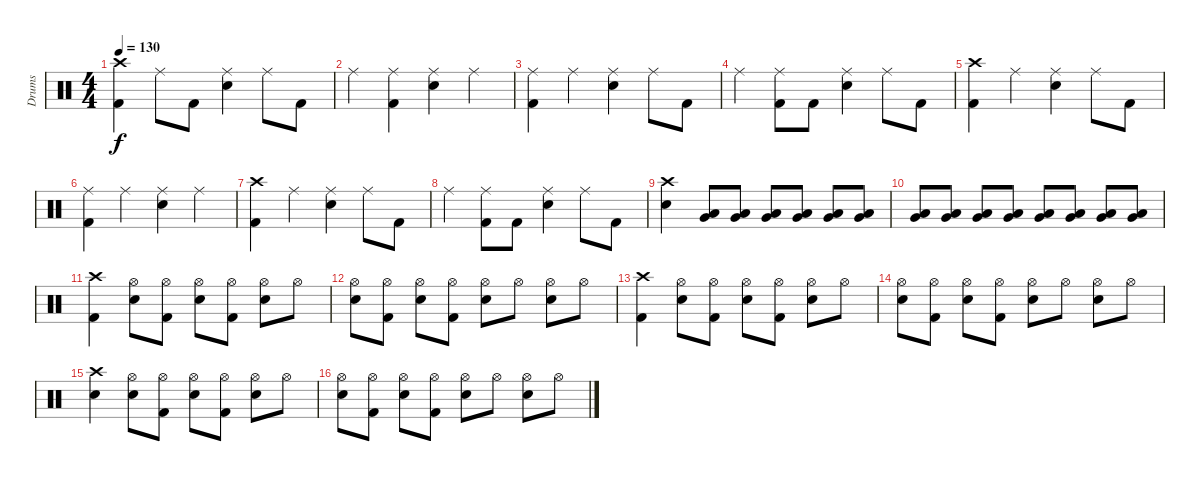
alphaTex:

\track ("Drums" "Drums") {instrument percussion}
\staff {score}
\articulation defaults
\ts (4 4)
\tempo 130
\clef neutral
\ks c
("Crash high (hit)" "Kick (hit) 2").4{dy f} "Ride (middle)".8 "Kick (hit) 2".8 ("Ride (middle)" "Electric Snare (hit)").4 "Ride (middle)".8 "Kick (hit) 2".8 |
"Ride (middle)".4 ("Ride (middle)" "Kick (hit) 2").4 ("Ride (middle)" "Electric Snare (hit)").4 "Ride (middle)".4 |
("Ride (middle)" "Kick (hit) 2").4 "Ride (middle)".4 ("Ride (middle)" "Electric Snare (hit)").4 "Ride (middle)".8 "Kick (hit) 2".8 |
"Ride (middle)".4 ("Ride (middle)" "Kick (hit) 2").8 "Kick (hit) 2".8 ("Ride (middle)" "Electric Snare (hit)").4 "Ride (middle)".8 "Kick (hit) 2".8 |
("Crash high (hit)" "Kick (hit) 2").4 "Ride (middle)".4 ("Ride (middle)" "Electric Snare (hit)").4 "Ride (middle)".8 "Kick (hit) 2".8 |
("Ride (middle)" "Kick (hit) 2").4 "Ride (middle)".4 ("Ride (middle)" "Electric Snare (hit)").4 "Ride (middle)".4 |
("Crash high (hit)" "Kick (hit) 2").4 "Ride (middle)".4 ("Ride (middle)" "Electric Snare (hit)").4 "Ride (middle)".8 "Kick (hit) 2".8 |
"Ride (middle)".4 ("Ride (middle)" "Kick (hit) 2").8 "Kick (hit) 2".8 ("Ride (middle)" "Electric Snare (hit)").4 "Ride (middle)".8 "Kick (hit) 2".8 |
("Crash high (hit)" "Electric Snare (hit)").4 ("Low Tom (hit)" "Very Low Tom (hit)").8 ("Low Tom (hit)" "Very Low Tom (hit)").8 ("Low Tom (hit)" "Very Low Tom (hit)").8 ("Low Tom (hit)" "Very Low Tom (hit)").8 ("Low Tom (hit)" "Very Low Tom (hit)").8 ("Low Tom (hit)" "Very Low Tom (hit)").8 |
("Low Tom (hit)" "Very Low Tom (hit)").8 ("Low Tom (hit)" "Very Low Tom (hit)").8 ("Low Tom (hit)" "Very Low Tom (hit)").8 ("Low Tom (hit)" "Very Low Tom (hit)").8 ("Low Tom (hit)" "Very Low Tom (hit)").8 ("Low Tom (hit)" "Very Low Tom (hit)").8 ("Low Tom (hit)" "Very Low Tom (hit)").8 ("Low Tom (hit)" "Very Low Tom (hit)").8 |
("Crash high (hit)" "Kick (hit) 2").4 ("Hi-Hat (open)" "Electric Snare (hit)").8 ("Hi-Hat (open)" "Kick (hit) 2").8 ("Hi-Hat (open)" "Electric Snare (hit)").8 ("Hi-Hat (open)" "Kick (hit) 2").8 ("Hi-Hat (open)" "Electric Snare (hit)").8 "Hi-Hat (open)".8 |
("Hi-Hat (open)" "Electric Snare (hit)").8 ("Hi-Hat (open)" "Kick (hit) 2").8 ("Hi-Hat (open)" "Electric Snare (hit)").8 ("Hi-Hat (open)" "Kick (hit) 2").8 ("Hi-Hat (open)" "Electric Snare (hit)").8 "Hi-Hat (open)".8 ("Hi-Hat (open)" "Electric Snare (hit)").8 "Hi-Hat (open)".8 |
("Crash high (hit)" "Kick (hit) 2").4 ("Hi-Hat (open)" "Electric Snare (hit)").8 ("Hi-Hat (open)" "Kick (hit) 2").8 ("Hi-Hat (open)" "Electric Snare (hit)").8 ("Hi-Hat (open)" "Kick (hit) 2").8 ("Hi-Hat (open)" "Electric Snare (hit)").8 "Hi-Hat (open)".8 |
("Hi-Hat (open)" "Electric Snare (hit)").8 ("Hi-Hat (open)" "Kick (hit) 2").8 ("Hi-Hat (open)" "Electric Snare (hit)").8 ("Hi-Hat (open)" "Kick (hit) 2").8 ("Hi-Hat (open)" "Electric Snare (hit)").8 "Hi-Hat (open)".8 ("Hi-Hat (open)" "Electric Snare (hit)").8 "Hi-Hat (open)".8 |
("Crash high (hit)" "Electric Snare (hit)").4 ("Hi-Hat (open)" "Electric Snare (hit)").8 ("Hi-Hat (open)" "Kick (hit) 2").8 ("Hi-Hat (open)" "Electric Snare (hit)").8 ("Hi-Hat (open)" "Kick (hit) 2").8 ("Hi-Hat (open)" "Electric Snare (hit)").8 "Hi-Hat (open)".8 |
("Hi-Hat (open)" "Electric Snare (hit)").8 ("Hi-Hat (open)" "Kick (hit) 2").8 ("Hi-Hat (open)" "Electric Snare (hit)").8 ("Hi-Hat (open)" "Kick (hit) 2").8 ("Hi-Hat (open)" "Electric Snare (hit)").8 "Hi-Hat (open)".8 ("Hi-Hat (open)" "Electric Snare (hit)").8 "Hi-Hat (open)".8
